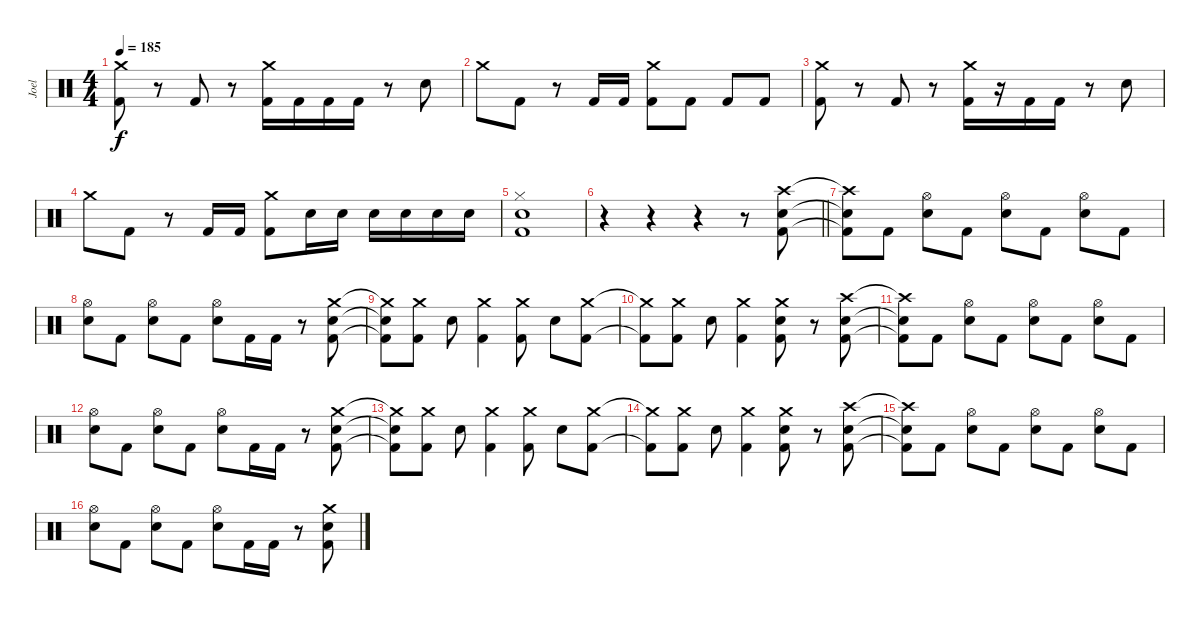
\track ("Joel" "Joel") {instrument percussion}
\staff {score}
\articulation defaults
\ts (4 4)
\tempo 185
\clef neutral
\ks c
("Crash medium (hit)" "Kick (hit) 2").8{dy f} r.8 "Kick (hit) 2".8 r.8 ("Crash medium (hit)" "Kick (hit) 2").16 "Kick (hit) 2".16 "Kick (hit) 2".16 "Kick (hit) 2".16 r.8 "Electric Snare (hit)".8 |
"Crash medium (hit)".8 "Kick (hit) 2".8 r.8 "Kick (hit) 2".16 "Kick (hit) 2".16 ("Crash medium (hit)" "Kick (hit) 2").8 "Kick (hit) 2".8 "Kick (hit) 2".8 "Kick (hit) 2".8 |
("Crash medium (hit)" "Kick (hit) 2").8 r.8 "Kick (hit) 2".8 r.8 ("Crash medium (hit)" "Kick (hit) 2").16 r.16 "Kick (hit) 2".16 "Kick (hit) 2".16 r.8 "Electric Snare (hit)".8 |
"Crash medium (hit)".8 "Kick (hit) 2".8 r.8 "Kick (hit) 2".16 "Kick (hit) 2".16 ("Crash medium (hit)" "Kick (hit) 2").8 "Electric Snare (hit)".16 "Electric Snare (hit)".16 "Electric Snare (hit)".16 "Electric Snare (hit)".16 "Electric Snare (hit)".16 "Electric Snare (hit)".16 |
("Electric Snare (hit)" "Hi-Hat (closed)" "Kick (hit) 2").1 |
\barLineRight lightlight
r.4 r.4 r.4 r.8 ("Crash high (hit)" "Electric Snare (hit)" "Kick (hit) 2").8 |
\section ("" "")
("Crash high (hit)"{t} "Electric Snare (hit)"{t} "Kick (hit) 2"{t}).8 "Kick (hit) 2".8 ("Hi-Hat (open)" "Electric Snare (hit)").8 "Kick (hit) 2".8 ("Hi-Hat (open)" "Electric Snare (hit)").8 "Kick (hit) 2".8 ("Hi-Hat (open)" "Electric Snare (hit)").8 "Kick (hit) 2".8 |
("Hi-Hat (open)" "Electric Snare (hit)").8 "Kick (hit) 2".8 ("Hi-Hat (open)" "Electric Snare (hit)").8 "Kick (hit) 2".8 ("Hi-Hat (open)" "Electric Snare (hit)").8 "Kick (hit) 2".16 "Kick (hit) 2".16 r.8 ("Crash medium (hit)" "Electric Snare (hit)" "Kick (hit) 2").8 |
("Crash medium (hit)"{t} "Electric Snare (hit)"{t} "Kick (hit) 2"{t}).8 ("Crash medium (hit)" "Kick (hit) 2").8 "Electric Snare (hit)".8 ("Crash medium (hit)" "Kick (hit) 2").4 ("Crash medium (hit)" "Kick (hit) 2").8 "Electric Snare (hit)".8 ("Crash medium (hit)" "Kick (hit) 2").8 |
("Crash medium (hit)"{t} "Kick (hit) 2"{t}).8 ("Crash medium (hit)" "Kick (hit) 2").8 "Electric Snare (hit)".8 ("Crash medium (hit)" "Kick (hit) 2").4 ("Crash medium (hit)" "Electric Snare (hit)" "Kick (hit) 2").8 r.8 ("Crash high (hit)" "Electric Snare (hit)" "Kick (hit) 2").8 |
("Crash high (hit)"{t} "Electric Snare (hit)"{t} "Kick (hit) 2"{t}).8 "Kick (hit) 2".8 ("Hi-Hat (open)" "Electric Snare (hit)").8 "Kick (hit) 2".8 ("Hi-Hat (open)" "Electric Snare (hit)").8 "Kick (hit) 2".8 ("Hi-Hat (open)" "Electric Snare (hit)").8 "Kick (hit) 2".8 |
("Hi-Hat (open)" "Electric Snare (hit)").8 "Kick (hit) 2".8 ("Hi-Hat (open)" "Electric Snare (hit)").8 "Kick (hit) 2".8 ("Hi-Hat (open)" "Electric Snare (hit)").8 "Kick (hit) 2".16 "Kick (hit) 2".16 r.8 ("Crash medium (hit)" "Electric Snare (hit)" "Kick (hit) 2").8 |
("Crash medium (hit)"{t} "Electric Snare (hit)"{t} "Kick (hit) 2"{t}).8 ("Crash medium (hit)" "Kick (hit) 2").8 "Electric Snare (hit)".8 ("Crash medium (hit)" "Kick (hit) 2").4 ("Crash medium (hit)" "Kick (hit) 2").8 "Electric Snare (hit)".8 ("Crash medium (hit)" "Kick (hit) 2").8 |
("Crash medium (hit)"{t} "Kick (hit) 2"{t}).8 ("Crash medium (hit)" "Kick (hit) 2").8 "Electric Snare (hit)".8 ("Crash medium (hit)" "Kick (hit) 2").4 ("Crash medium (hit)" "Electric Snare (hit)" "Kick (hit) 2").8 r.8 ("Crash high (hit)" "Electric Snare (hit)" "Kick (hit) 2").8 |
("Crash high (hit)"{t} "Electric Snare (hit)"{t} "Kick (hit) 2"{t}).8 "Kick (hit) 2".8 ("Hi-Hat (open)" "Electric Snare (hit)").8 "Kick (hit) 2".8 ("Hi-Hat (open)" "Electric Snare (hit)").8 "Kick (hit) 2".8 ("Hi-Hat (open)" "Electric Snare (hit)").8 "Kick (hit) 2".8 |
("Hi-Hat (open)" "Electric Snare (hit)").8 "Kick (hit) 2".8 ("Hi-Hat (open)" "Electric Snare (hit)").8 "Kick (hit) 2".8 ("Hi-Hat (open)" "Electric Snare (hit)").8 "Kick (hit) 2".16 "Kick (hit) 2".16 r.8 ("Crash medium (hit)" "Electric Snare (hit)" "Kick (hit) 2").8
